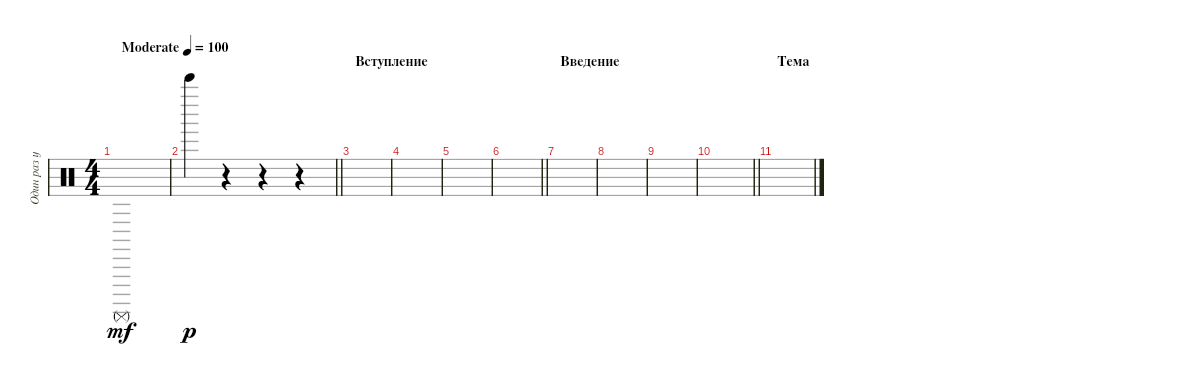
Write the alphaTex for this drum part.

\track ("Один раз ударить" "Один раз у") {instrument percussion}
\staff {score}
\articulation defaults
\ts (4 4)
\tempo (100 "Moderate")
\clef neutral
\ks c "Surdo (mute)".1{dy mf}
|
\barLineRight lightlight "Bell Tree (hit)".4{dy p}
r.4 r.4 r.4 |
\section ("" "Вступление")
|
|
|
\barLineRight lightlight
|
\section ("" "Введение")
|
|
|
\barLineRight lightlight
|
\section ("" "Тема")
